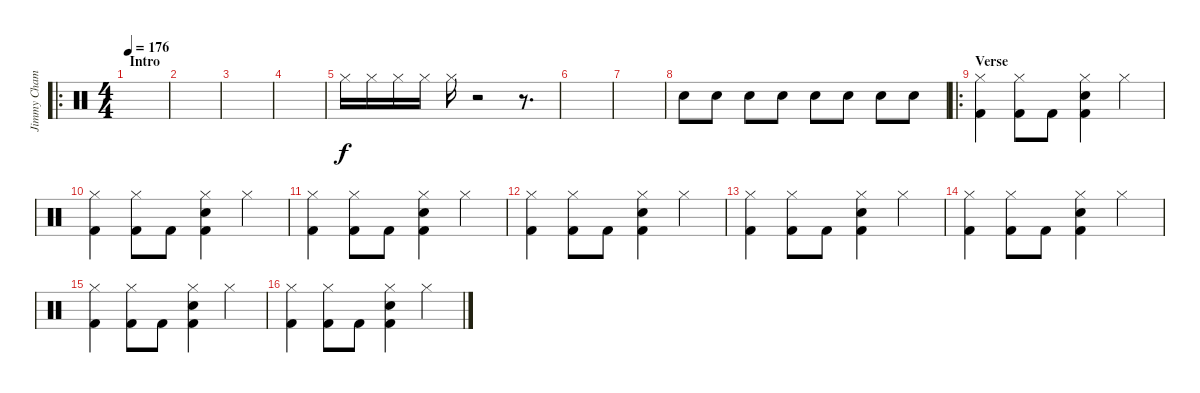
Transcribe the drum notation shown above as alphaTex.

\track ("Jimmy Chamberlin" "Jimmy Cham") {instrument percussion}
\staff {score}
\articulation defaults
\ro
\ts (4 4)
\section ("" "Intro")
\tempo 176
\clef neutral
\ks c
|
|
|
|
"Hi-Hat (closed)".16 "Hi-Hat (closed)".16 "Hi-Hat (closed)".16 "Hi-Hat (closed)".16 "Hi-Hat (closed)".16 r.2 r.8{d} |
|
|
"Snare (hit) 2".8 "Snare (hit) 2".8 "Snare (hit) 2".8 "Snare (hit) 2".8 "Snare (hit) 2".8 "Snare (hit) 2".8 "Snare (hit) 2".8 "Snare (hit) 2".8 |
\ro
\section ("" "Verse")
("Hi-Hat (closed)" "Kick (hit) 2").4 ("Hi-Hat (closed)" "Kick (hit) 2").8 "Kick (hit) 2".8 ("Hi-Hat (closed)" "Snare (hit) 2" "Kick (hit) 2").4 "Hi-Hat (closed)".4 |
("Hi-Hat (closed)" "Kick (hit) 2").4 ("Hi-Hat (closed)" "Kick (hit) 2").8 "Kick (hit) 2".8 ("Hi-Hat (closed)" "Snare (hit) 2" "Kick (hit) 2").4 "Hi-Hat (closed)".4 |
("Hi-Hat (closed)" "Kick (hit) 2").4 ("Hi-Hat (closed)" "Kick (hit) 2").8 "Kick (hit) 2".8 ("Hi-Hat (closed)" "Snare (hit) 2" "Kick (hit) 2").4 "Hi-Hat (closed)".4 |
("Hi-Hat (closed)" "Kick (hit) 2").4 ("Hi-Hat (closed)" "Kick (hit) 2").8 "Kick (hit) 2".8 ("Hi-Hat (closed)" "Snare (hit) 2" "Kick (hit) 2").4 "Hi-Hat (closed)".4 |
("Hi-Hat (closed)" "Kick (hit) 2").4 ("Hi-Hat (closed)" "Kick (hit) 2").8 "Kick (hit) 2".8 ("Hi-Hat (closed)" "Snare (hit) 2" "Kick (hit) 2").4 "Hi-Hat (closed)".4 |
("Hi-Hat (closed)" "Kick (hit) 2").4 ("Hi-Hat (closed)" "Kick (hit) 2").8 "Kick (hit) 2".8 ("Hi-Hat (closed)" "Snare (hit) 2" "Kick (hit) 2").4 "Hi-Hat (closed)".4 |
("Hi-Hat (closed)" "Kick (hit) 2").4 ("Hi-Hat (closed)" "Kick (hit) 2").8 "Kick (hit) 2".8 ("Hi-Hat (closed)" "Snare (hit) 2" "Kick (hit) 2").4 "Hi-Hat (closed)".4 |
("Hi-Hat (closed)" "Kick (hit) 2").4 ("Hi-Hat (closed)" "Kick (hit) 2").8 "Kick (hit) 2".8 ("Hi-Hat (closed)" "Snare (hit) 2" "Kick (hit) 2").4 "Hi-Hat (closed)".4
